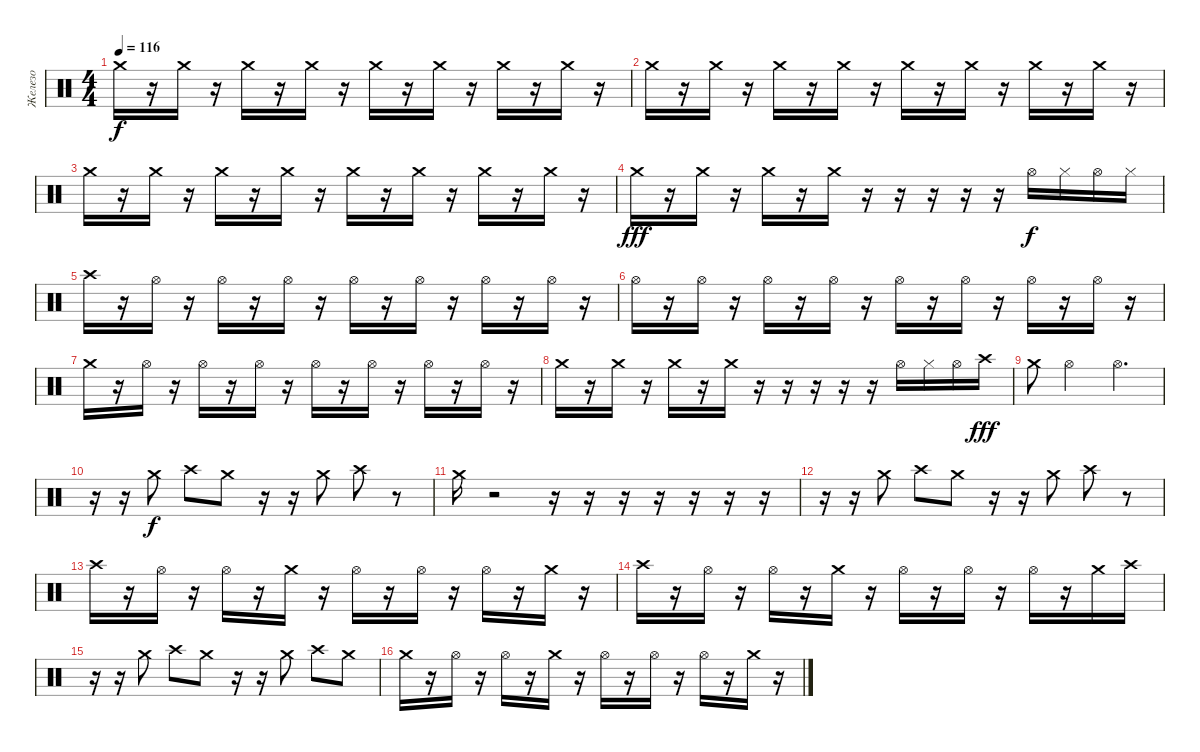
\track ("Железо" "Железо") {instrument percussion}
\staff {score}
\articulation defaults
\ts (4 4)
\tempo 116
\clef neutral
\ks c "Crash medium (hit)".16{dy f}
r.16 "Crash medium (hit)".16 r.16 "Crash medium (hit)".16 r.16 "Crash medium (hit)".16 r.16 "Crash medium (hit)".16 r.16 "Crash medium (hit)".16 r.16 "Crash medium (hit)".16 r.16 "Crash medium (hit)".16 r.16 |
"Crash medium (hit)".16 r.16 "Crash medium (hit)".16 r.16 "Crash medium (hit)".16 r.16 "Crash medium (hit)".16 r.16 "Crash medium (hit)".16 r.16 "Crash medium (hit)".16 r.16 "Crash medium (hit)".16 r.16 "Crash medium (hit)".16 r.16 |
"Crash medium (hit)".16 r.16 "Crash medium (hit)".16 r.16 "Crash medium (hit)".16 r.16 "Crash medium (hit)".16 r.16 "Crash medium (hit)".16 r.16 "Crash medium (hit)".16 r.16 "Crash medium (hit)".16 r.16 "Crash medium (hit)".16 r.16 |
"Crash medium (hit)".16{dy fff} r.16 "Crash medium (hit)".16 r.16 "Crash medium (hit)".16 r.16 "Crash medium (hit)".16 r.16 r.16 r.16 r.16 r.16 "Hi-Hat (open)".16{dy f} "Hi-Hat (closed)".16 "Hi-Hat (open)".16 "Hi-Hat (closed)".16 |
"Crash high (hit)".16 r.16 "Hi-Hat (open)".16 r.16 "Hi-Hat (open)".16 r.16 "Hi-Hat (open)".16 r.16 "Hi-Hat (open)".16 r.16 "Hi-Hat (open)".16 r.16 "Hi-Hat (open)".16 r.16 "Hi-Hat (open)".16 r.16 |
"Hi-Hat (open)".16 r.16 "Hi-Hat (open)".16 r.16 "Hi-Hat (open)".16 r.16 "Hi-Hat (open)".16 r.16 "Hi-Hat (open)".16 r.16 "Hi-Hat (open)".16 r.16 "Hi-Hat (open)".16 r.16 "Hi-Hat (open)".16 r.16 |
"Crash medium (hit)".16 r.16 "Hi-Hat (open)".16 r.16 "Hi-Hat (open)".16 r.16 "Hi-Hat (open)".16 r.16 "Hi-Hat (open)".16 r.16 "Hi-Hat (open)".16 r.16 "Hi-Hat (open)".16 r.16 "Hi-Hat (open)".16 r.16 |
"Crash medium (hit)".16 r.16 "Crash medium (hit)".16 r.16 "Crash medium (hit)".16 r.16 "Crash medium (hit)".16 r.16 r.16 r.16 r.16 r.16 "Hi-Hat (open)".16 "Hi-Hat (closed)".16 "Hi-Hat (open)".16 "Crash high (hit)".16{dy fff} |
"Crash medium (hit)".8 "Hi-Hat (open)".2 "Hi-Hat (open)".4{d} |
r.16 r.16 "Crash medium (hit)".8{dy f} "Crash high (hit)".8 "Crash medium (hit)".8 r.16 r.16 "Crash medium (hit)".8 "Crash high (hit)".8 r.8 |
"Crash medium (hit)".16 r.2 r.16 r.16 r.16 r.16 r.16 r.16 r.16 |
r.16 r.16 "Crash medium (hit)".8 "Crash high (hit)".8 "Crash medium (hit)".8 r.16 r.16 "Crash medium (hit)".8 "Crash high (hit)".8 r.8 |
"Crash high (hit)".16 r.16 "Hi-Hat (open)".16 r.16 "Hi-Hat (open)".16 r.16 "Crash medium (hit)".16 r.16 "Hi-Hat (open)".16 r.16 "Hi-Hat (open)".16 r.16 "Hi-Hat (open)".16 r.16 "Crash medium (hit)".16 r.16 |
"Crash high (hit)".16 r.16 "Hi-Hat (open)".16 r.16 "Hi-Hat (open)".16 r.16 "Crash medium (hit)".16 r.16 "Hi-Hat (open)".16 r.16 "Hi-Hat (open)".16 r.16 "Hi-Hat (open)".16 r.16 "Crash medium (hit)".16 "Crash high (hit)".16 |
r.16 r.16 "Crash medium (hit)".8 "Crash high (hit)".8 "Crash medium (hit)".8 r.16 r.16 "Crash medium (hit)".8 "Crash high (hit)".8 "Crash medium (hit)".8 |
"Crash medium (hit)".16 r.16 "Hi-Hat (open)".16 r.16 "Hi-Hat (open)".16 r.16 "Crash medium (hit)".16 r.16 "Hi-Hat (open)".16 r.16 "Hi-Hat (open)".16 r.16 "Hi-Hat (open)".16 r.16 "Crash medium (hit)".16 r.16
